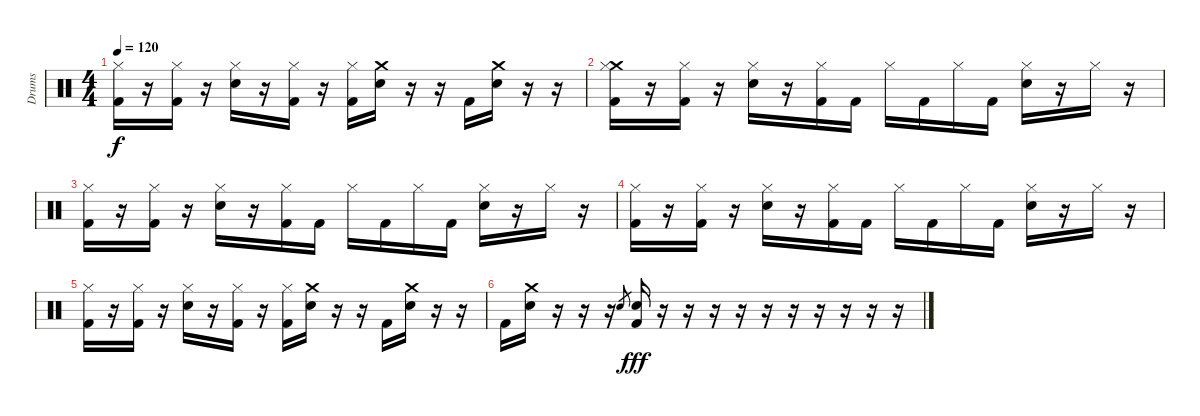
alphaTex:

\track ("Drums" "Drums") {instrument percussion}
\staff {score}
\articulation defaults
\ts (4 4)
\tempo 120
\clef neutral
\ks c
("Hi-Hat (closed)" "Kick (hit) 2").16{dy f} r.16 ("Hi-Hat (closed)" "Kick (hit) 2").16 r.16 ("Hi-Hat (closed)" "Snare (hit) 2").16 r.16 ("Hi-Hat (closed)" "Kick (hit) 2").16 r.16 ("Hi-Hat (closed)" "Kick (hit) 2").16 ("Crash medium (hit)" "Snare (hit) 2").16 r.16 r.16 "Kick (hit) 2".16 ("Crash medium (hit)" "Snare (hit) 2").16 r.16 r.16 |
("Crash medium (hit)" "Hi-Hat (closed)" "Kick (hit) 2").16 r.16 ("Hi-Hat (closed)" "Kick (hit) 2").16 r.16 ("Hi-Hat (closed)" "Snare (hit) 2").16 r.16 ("Hi-Hat (closed)" "Kick (hit) 2").16 "Kick (hit) 2".16 "Hi-Hat (closed)".16 "Kick (hit) 2".16 "Hi-Hat (closed)".16 "Kick (hit) 2".16 ("Hi-Hat (closed)" "Snare (hit) 2").16 r.16 "Hi-Hat (closed)".16 r.16 |
("Hi-Hat (closed)" "Kick (hit) 2").16 r.16 ("Hi-Hat (closed)" "Kick (hit) 2").16 r.16 ("Hi-Hat (closed)" "Snare (hit) 2").16 r.16 ("Hi-Hat (closed)" "Kick (hit) 2").16 "Kick (hit) 2".16 "Hi-Hat (closed)".16 "Kick (hit) 2".16 "Hi-Hat (closed)".16 "Kick (hit) 2".16 ("Hi-Hat (closed)" "Snare (hit) 2").16 r.16 "Hi-Hat (closed)".16 r.16 |
("Hi-Hat (closed)" "Kick (hit) 2").16 r.16 ("Hi-Hat (closed)" "Kick (hit) 2").16 r.16 ("Hi-Hat (closed)" "Snare (hit) 2").16 r.16 ("Hi-Hat (closed)" "Kick (hit) 2").16 "Kick (hit) 2".16 "Hi-Hat (closed)".16 "Kick (hit) 2".16 "Hi-Hat (closed)".16 "Kick (hit) 2".16 ("Hi-Hat (closed)" "Snare (hit) 2").16 r.16 "Hi-Hat (closed)".16 r.16 |
("Hi-Hat (closed)" "Kick (hit) 2").16 r.16 ("Hi-Hat (closed)" "Kick (hit) 2").16 r.16 ("Hi-Hat (closed)" "Snare (hit) 2").16 r.16 ("Hi-Hat (closed)" "Kick (hit) 2").16 r.16 ("Hi-Hat (closed)" "Kick (hit) 2").16 ("Crash medium (hit)" "Snare (hit) 2").16 r.16 r.16 "Kick (hit) 2".16 ("Crash medium (hit)" "Snare (hit) 2").16 r.16 r.16 |
"Kick (hit) 2".16 ("Crash medium (hit)" "Snare (hit) 2").16 r.16 r.16 r.16 "Snare (hit) 2".8{gr} ("Snare (hit) 2" "Kick (hit) 2").16{dy fff} r.16 r.16 r.16 r.16 r.16 r.16 r.16 r.16 r.16 r.16
